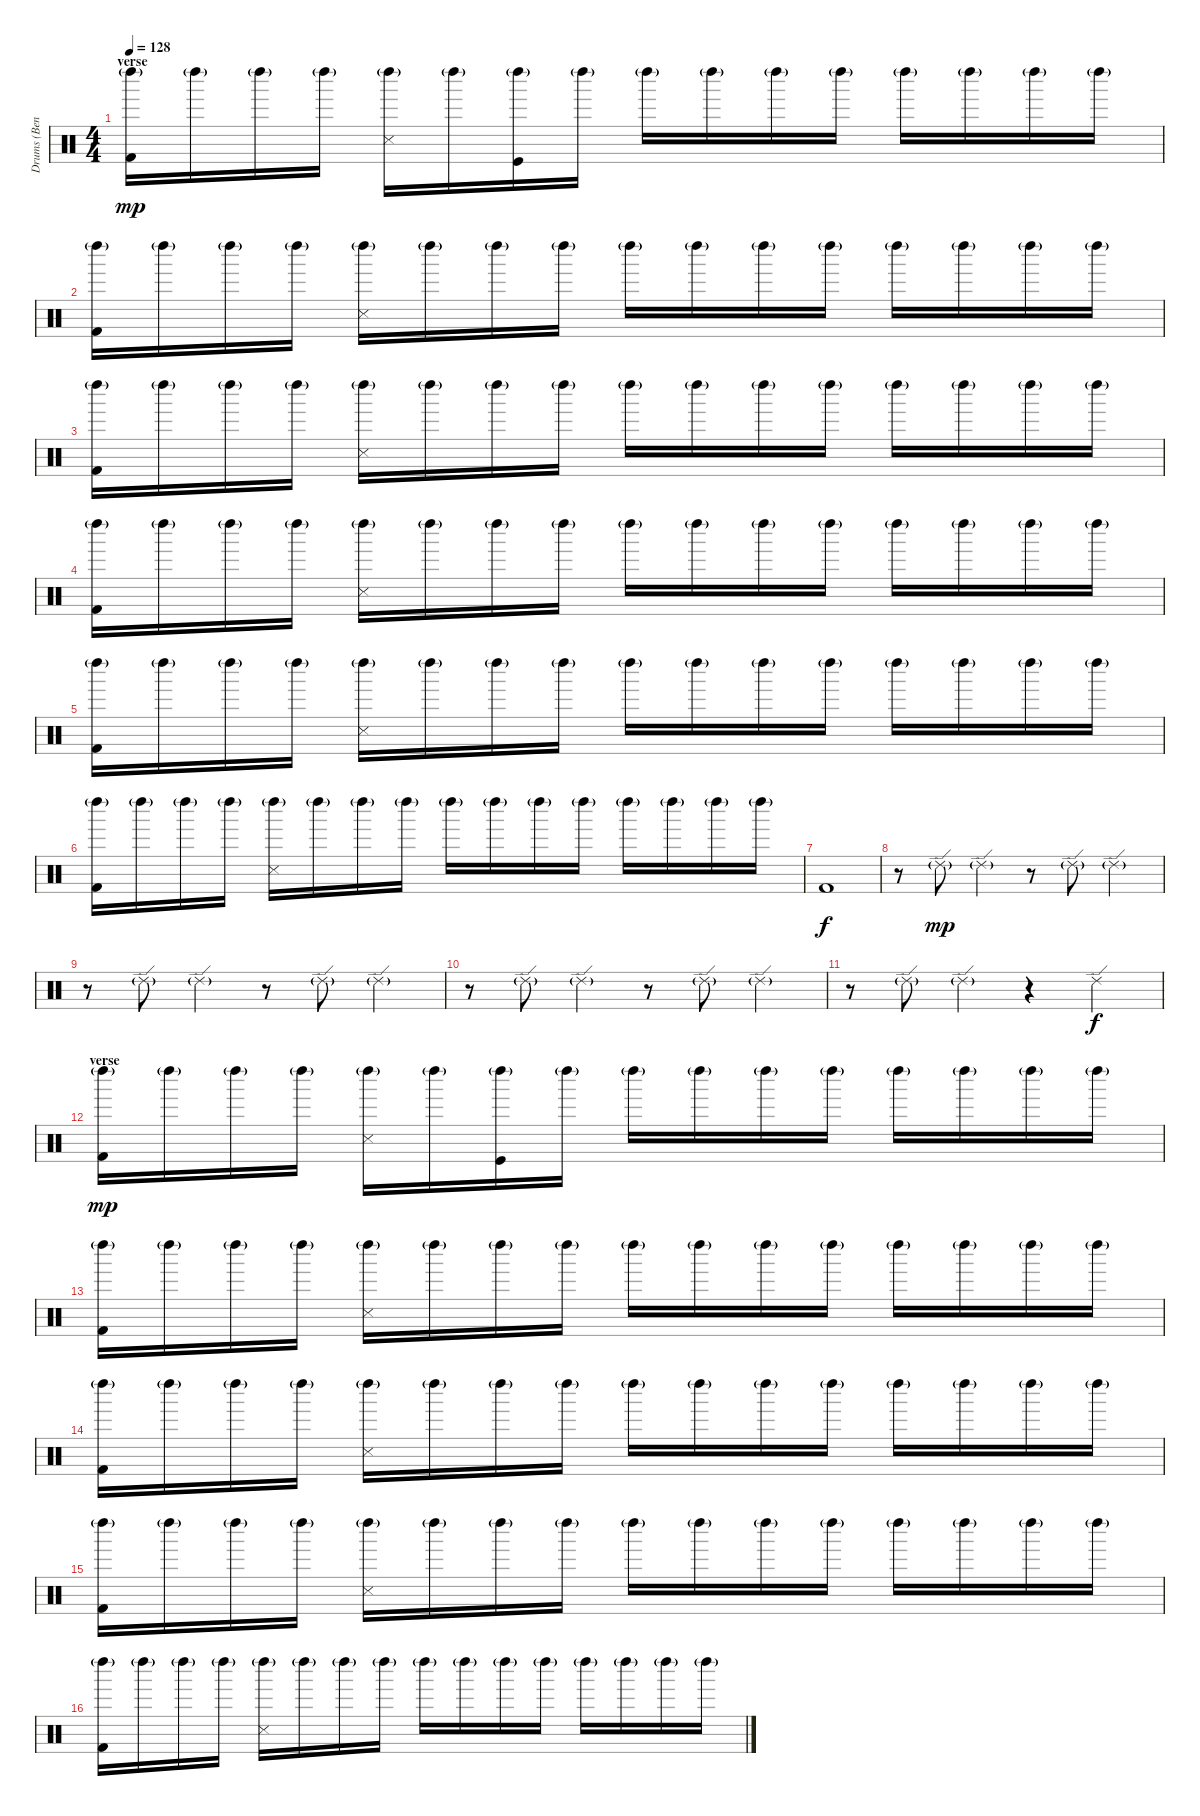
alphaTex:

\track ("Drums (Bengerg)" "Drums (Ben") {instrument percussion}
\staff {score}
\articulation defaults
\ts (4 4)
\section ("" "verse")
\tempo 128
\clef neutral
\ks c
("Left Maraca (hit)"{g} "Kick (hit) 2").16{dy mp} "Left Maraca (hit)"{g}.16 "Left Maraca (hit)"{g}.16 "Left Maraca (hit)"{g}.16 ("Left Maraca (hit)"{g} "Snare (side stick) 3").16 "Left Maraca (hit)"{g}.16 ("Left Maraca (hit)"{g} "Kick (hit)").16 "Left Maraca (hit)"{g}.16 "Left Maraca (hit)"{g}.16 "Left Maraca (hit)"{g}.16 "Left Maraca (hit)"{g}.16 "Left Maraca (hit)"{g}.16 "Left Maraca (hit)"{g}.16 "Left Maraca (hit)"{g}.16 "Left Maraca (hit)"{g}.16 "Left Maraca (hit)"{g}.16 |
("Left Maraca (hit)"{g} "Kick (hit) 2").16 "Left Maraca (hit)"{g}.16 "Left Maraca (hit)"{g}.16 "Left Maraca (hit)"{g}.16 ("Left Maraca (hit)"{g} "Snare (side stick) 3").16 "Left Maraca (hit)"{g}.16 "Left Maraca (hit)"{g}.16 "Left Maraca (hit)"{g}.16 "Left Maraca (hit)"{g}.16 "Left Maraca (hit)"{g}.16 "Left Maraca (hit)"{g}.16 "Left Maraca (hit)"{g}.16 "Left Maraca (hit)"{g}.16 "Left Maraca (hit)"{g}.16 "Left Maraca (hit)"{g}.16 "Left Maraca (hit)"{g}.16 |
("Left Maraca (hit)"{g} "Kick (hit) 2").16 "Left Maraca (hit)"{g}.16 "Left Maraca (hit)"{g}.16 "Left Maraca (hit)"{g}.16 ("Left Maraca (hit)"{g} "Snare (side stick) 3").16 "Left Maraca (hit)"{g}.16 "Left Maraca (hit)"{g}.16 "Left Maraca (hit)"{g}.16 "Left Maraca (hit)"{g}.16 "Left Maraca (hit)"{g}.16 "Left Maraca (hit)"{g}.16 "Left Maraca (hit)"{g}.16 "Left Maraca (hit)"{g}.16 "Left Maraca (hit)"{g}.16 "Left Maraca (hit)"{g}.16 "Left Maraca (hit)"{g}.16 |
("Left Maraca (hit)"{g} "Kick (hit) 2").16 "Left Maraca (hit)"{g}.16 "Left Maraca (hit)"{g}.16 "Left Maraca (hit)"{g}.16 ("Left Maraca (hit)"{g} "Snare (side stick) 3").16 "Left Maraca (hit)"{g}.16 "Left Maraca (hit)"{g}.16 "Left Maraca (hit)"{g}.16 "Left Maraca (hit)"{g}.16 "Left Maraca (hit)"{g}.16 "Left Maraca (hit)"{g}.16 "Left Maraca (hit)"{g}.16 "Left Maraca (hit)"{g}.16 "Left Maraca (hit)"{g}.16 "Left Maraca (hit)"{g}.16 "Left Maraca (hit)"{g}.16 |
("Left Maraca (hit)"{g} "Kick (hit) 2").16 "Left Maraca (hit)"{g}.16 "Left Maraca (hit)"{g}.16 "Left Maraca (hit)"{g}.16 ("Left Maraca (hit)"{g} "Snare (side stick) 3").16 "Left Maraca (hit)"{g}.16 "Left Maraca (hit)"{g}.16 "Left Maraca (hit)"{g}.16 "Left Maraca (hit)"{g}.16 "Left Maraca (hit)"{g}.16 "Left Maraca (hit)"{g}.16 "Left Maraca (hit)"{g}.16 "Left Maraca (hit)"{g}.16 "Left Maraca (hit)"{g}.16 "Left Maraca (hit)"{g}.16 "Left Maraca (hit)"{g}.16 |
("Left Maraca (hit)"{g} "Kick (hit) 2").16 "Left Maraca (hit)"{g}.16 "Left Maraca (hit)"{g}.16 "Left Maraca (hit)"{g}.16 ("Left Maraca (hit)"{g} "Snare (side stick) 3").16 "Left Maraca (hit)"{g}.16 "Left Maraca (hit)"{g}.16 "Left Maraca (hit)"{g}.16 "Left Maraca (hit)"{g}.16 "Left Maraca (hit)"{g}.16 "Left Maraca (hit)"{g}.16 "Left Maraca (hit)"{g}.16 "Left Maraca (hit)"{g}.16 "Left Maraca (hit)"{g}.16 "Left Maraca (hit)"{g}.16 "Left Maraca (hit)"{g}.16 |
"Kick (hit) 2".1{dy f} |
r.8 "Ride (edge) 2"{g}.8{dy mp} "Ride (edge) 2"{g}.4 r.8 "Ride (edge) 2"{g}.8 "Ride (edge) 2"{g}.4 |
r.8 "Ride (edge) 2"{g}.8 "Ride (edge) 2"{g}.4 r.8 "Ride (edge) 2"{g}.8 "Ride (edge) 2"{g}.4 |
r.8 "Ride (edge) 2"{g}.8 "Ride (edge) 2"{g}.4 r.8 "Ride (edge) 2"{g}.8 "Ride (edge) 2"{g}.4 |
r.8 "Ride (edge) 2"{g}.8 "Ride (edge) 2"{g}.4 r.4 "Ride (edge) 2".4{dy f} |
\section ("" "verse")
("Left Maraca (hit)"{g} "Kick (hit) 2").16{dy mp} "Left Maraca (hit)"{g}.16 "Left Maraca (hit)"{g}.16 "Left Maraca (hit)"{g}.16 ("Left Maraca (hit)"{g} "Snare (side stick) 3").16 "Left Maraca (hit)"{g}.16 ("Left Maraca (hit)"{g} "Kick (hit)").16 "Left Maraca (hit)"{g}.16 "Left Maraca (hit)"{g}.16 "Left Maraca (hit)"{g}.16 "Left Maraca (hit)"{g}.16 "Left Maraca (hit)"{g}.16 "Left Maraca (hit)"{g}.16 "Left Maraca (hit)"{g}.16 "Left Maraca (hit)"{g}.16 "Left Maraca (hit)"{g}.16 |
("Left Maraca (hit)"{g} "Kick (hit) 2").16 "Left Maraca (hit)"{g}.16 "Left Maraca (hit)"{g}.16 "Left Maraca (hit)"{g}.16 ("Left Maraca (hit)"{g} "Snare (side stick) 3").16 "Left Maraca (hit)"{g}.16 "Left Maraca (hit)"{g}.16 "Left Maraca (hit)"{g}.16 "Left Maraca (hit)"{g}.16 "Left Maraca (hit)"{g}.16 "Left Maraca (hit)"{g}.16 "Left Maraca (hit)"{g}.16 "Left Maraca (hit)"{g}.16 "Left Maraca (hit)"{g}.16 "Left Maraca (hit)"{g}.16 "Left Maraca (hit)"{g}.16 |
("Left Maraca (hit)"{g} "Kick (hit) 2").16 "Left Maraca (hit)"{g}.16 "Left Maraca (hit)"{g}.16 "Left Maraca (hit)"{g}.16 ("Left Maraca (hit)"{g} "Snare (side stick) 3").16 "Left Maraca (hit)"{g}.16 "Left Maraca (hit)"{g}.16 "Left Maraca (hit)"{g}.16 "Left Maraca (hit)"{g}.16 "Left Maraca (hit)"{g}.16 "Left Maraca (hit)"{g}.16 "Left Maraca (hit)"{g}.16 "Left Maraca (hit)"{g}.16 "Left Maraca (hit)"{g}.16 "Left Maraca (hit)"{g}.16 "Left Maraca (hit)"{g}.16 |
("Left Maraca (hit)"{g} "Kick (hit) 2").16 "Left Maraca (hit)"{g}.16 "Left Maraca (hit)"{g}.16 "Left Maraca (hit)"{g}.16 ("Left Maraca (hit)"{g} "Snare (side stick) 3").16 "Left Maraca (hit)"{g}.16 "Left Maraca (hit)"{g}.16 "Left Maraca (hit)"{g}.16 "Left Maraca (hit)"{g}.16 "Left Maraca (hit)"{g}.16 "Left Maraca (hit)"{g}.16 "Left Maraca (hit)"{g}.16 "Left Maraca (hit)"{g}.16 "Left Maraca (hit)"{g}.16 "Left Maraca (hit)"{g}.16 "Left Maraca (hit)"{g}.16 |
("Left Maraca (hit)"{g} "Kick (hit) 2").16 "Left Maraca (hit)"{g}.16 "Left Maraca (hit)"{g}.16 "Left Maraca (hit)"{g}.16 ("Left Maraca (hit)"{g} "Snare (side stick) 3").16 "Left Maraca (hit)"{g}.16 "Left Maraca (hit)"{g}.16 "Left Maraca (hit)"{g}.16 "Left Maraca (hit)"{g}.16 "Left Maraca (hit)"{g}.16 "Left Maraca (hit)"{g}.16 "Left Maraca (hit)"{g}.16 "Left Maraca (hit)"{g}.16 "Left Maraca (hit)"{g}.16 "Left Maraca (hit)"{g}.16 "Left Maraca (hit)"{g}.16
